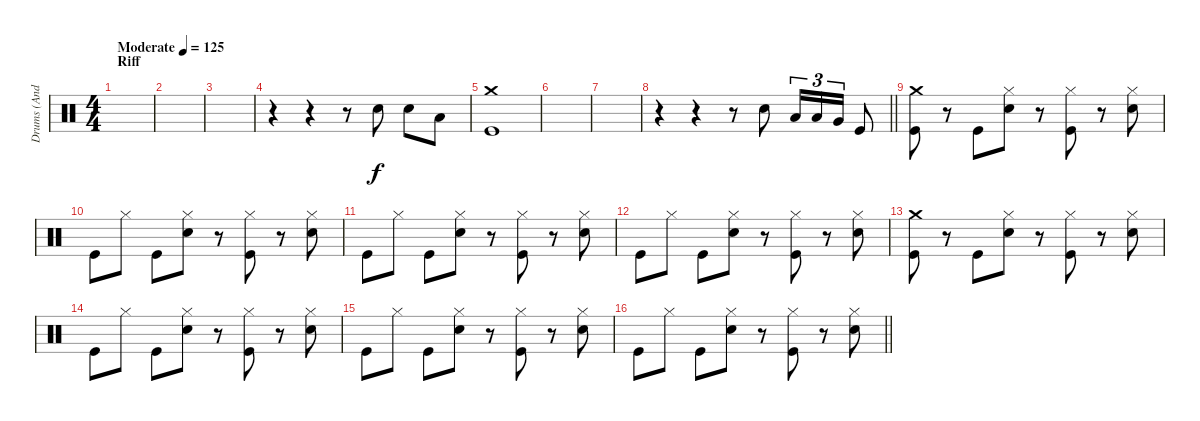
\track ("Drums (Andy Parker)" "Drums (And") {instrument percussion}
\staff {score}
\articulation defaults
\ts (4 4)
\section ("" "Riff")
\tempo (125 "Moderate")
\clef neutral
\ks c
|
|
|
r.4 r.4 r.8 "Electric Snare (hit)".8 "Electric Snare (hit)".8 "Low Tom (hit)".8 |
("Crash medium (hit)" "Kick (hit)").1 |
|
|
\barLineRight lightlight
r.4 r.4 r.8 "Electric Snare (hit)".8 "Low Tom (hit)".16{tu (3 2)} "Low Tom (hit)".16{tu (3 2)} "Very Low Tom (hit)".16{tu (3 2)} "Kick (hit)".8 |
("Crash medium (hit)" "Kick (hit)").8 r.8 "Kick (hit)".8 ("Hi-Hat (closed)" "Electric Snare (hit)").8 r.8 ("Hi-Hat (closed)" "Kick (hit)").8 r.8 ("Hi-Hat (closed)" "Electric Snare (hit)").8 |
"Kick (hit)".8 "Hi-Hat (closed)".8 "Kick (hit)".8 ("Hi-Hat (closed)" "Electric Snare (hit)").8 r.8 ("Hi-Hat (closed)" "Kick (hit)").8 r.8 ("Hi-Hat (closed)" "Electric Snare (hit)").8 |
"Kick (hit)".8 "Hi-Hat (closed)".8 "Kick (hit)".8 ("Hi-Hat (closed)" "Electric Snare (hit)").8 r.8 ("Hi-Hat (closed)" "Kick (hit)").8 r.8 ("Hi-Hat (closed)" "Electric Snare (hit)").8 |
"Kick (hit)".8 "Hi-Hat (closed)".8 "Kick (hit)".8 ("Hi-Hat (closed)" "Electric Snare (hit)").8 r.8 ("Hi-Hat (closed)" "Kick (hit)").8 r.8 ("Hi-Hat (closed)" "Electric Snare (hit)").8 |
("Crash medium (hit)" "Kick (hit)").8 r.8 "Kick (hit)".8 ("Hi-Hat (closed)" "Electric Snare (hit)").8 r.8 ("Hi-Hat (closed)" "Kick (hit)").8 r.8 ("Hi-Hat (closed)" "Electric Snare (hit)").8 |
"Kick (hit)".8 "Hi-Hat (closed)".8 "Kick (hit)".8 ("Hi-Hat (closed)" "Electric Snare (hit)").8 r.8 ("Hi-Hat (closed)" "Kick (hit)").8 r.8 ("Hi-Hat (closed)" "Electric Snare (hit)").8 |
"Kick (hit)".8 "Hi-Hat (closed)".8 "Kick (hit)".8 ("Hi-Hat (closed)" "Electric Snare (hit)").8 r.8 ("Hi-Hat (closed)" "Kick (hit)").8 r.8 ("Hi-Hat (closed)" "Electric Snare (hit)").8 |
\barLineRight lightlight "Kick (hit)".8 "Hi-Hat (closed)".8 "Kick (hit)".8
("Hi-Hat (closed)" "Electric Snare (hit)").8 r.8 ("Hi-Hat (closed)" "Kick (hit)").8 r.8 ("Hi-Hat (closed)" "Electric Snare (hit)").8
